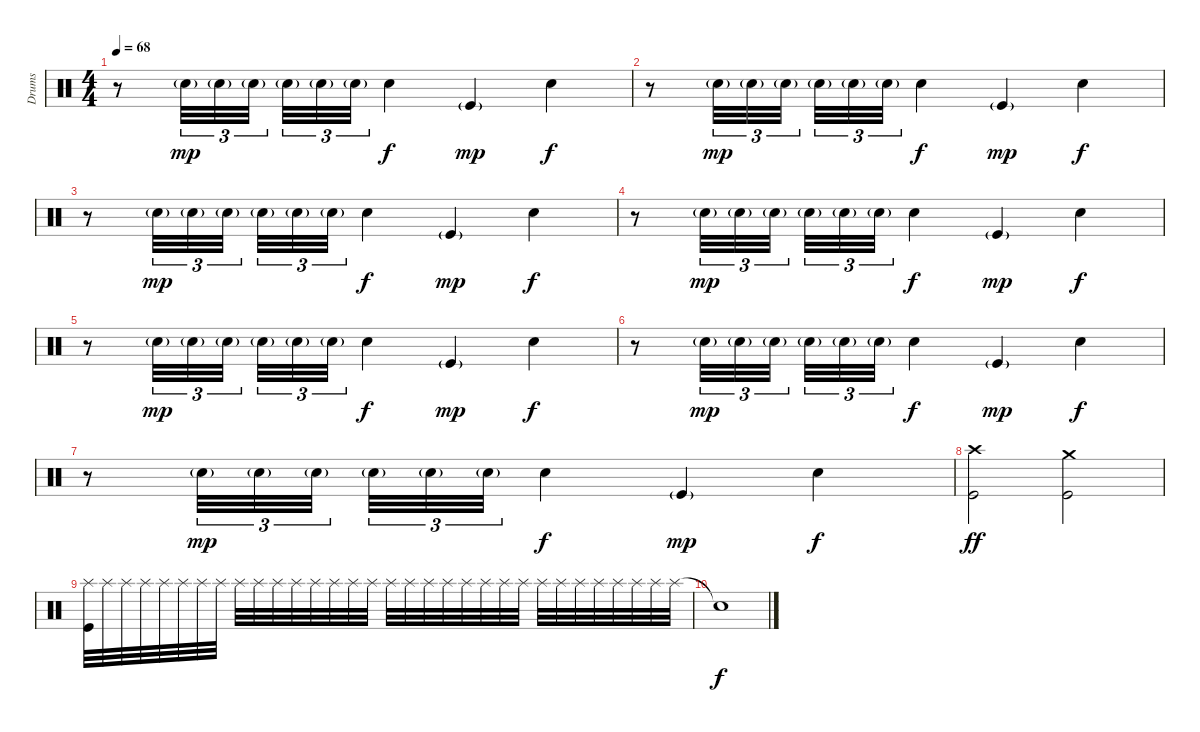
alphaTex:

\track ("Drums" "Drums") {instrument percussion}
\staff {score}
\articulation defaults
\ts (4 4)
\tempo 68
\clef neutral
\ks c
r.8{dy mp} "Snare (hit) 2"{g}.32{tu (3 2)} "Snare (hit) 2"{g}.32{tu (3 2)} "Snare (hit) 2"{g}.32{tu (3 2)} "Snare (hit) 2"{g}.32{tu (3 2)} "Snare (hit) 2"{g}.32{tu (3 2)} "Snare (hit) 2"{g}.32{tu (3 2)} "Snare (hit) 2".4{dy f} "Kick (hit)"{g}.4{dy mp} "Snare (hit) 2".4{dy f} |
r.8 "Snare (hit) 2"{g}.32{tu (3 2) dy mp} "Snare (hit) 2"{g}.32{tu (3 2)} "Snare (hit) 2"{g}.32{tu (3 2)} "Snare (hit) 2"{g}.32{tu (3 2)} "Snare (hit) 2"{g}.32{tu (3 2)} "Snare (hit) 2"{g}.32{tu (3 2)} "Snare (hit) 2".4{dy f} "Kick (hit)"{g}.4{dy mp} "Snare (hit) 2".4{dy f} |
r.8 "Snare (hit) 2"{g}.32{tu (3 2) dy mp} "Snare (hit) 2"{g}.32{tu (3 2)} "Snare (hit) 2"{g}.32{tu (3 2)} "Snare (hit) 2"{g}.32{tu (3 2)} "Snare (hit) 2"{g}.32{tu (3 2)} "Snare (hit) 2"{g}.32{tu (3 2)} "Snare (hit) 2".4{dy f} "Kick (hit)"{g}.4{dy mp} "Snare (hit) 2".4{dy f} |
r.8 "Snare (hit) 2"{g}.32{tu (3 2) dy mp} "Snare (hit) 2"{g}.32{tu (3 2)} "Snare (hit) 2"{g}.32{tu (3 2)} "Snare (hit) 2"{g}.32{tu (3 2)} "Snare (hit) 2"{g}.32{tu (3 2)} "Snare (hit) 2"{g}.32{tu (3 2)} "Snare (hit) 2".4{dy f} "Kick (hit)"{g}.4{dy mp} "Snare (hit) 2".4{dy f} |
r.8 "Snare (hit) 2"{g}.32{tu (3 2) dy mp} "Snare (hit) 2"{g}.32{tu (3 2)} "Snare (hit) 2"{g}.32{tu (3 2)} "Snare (hit) 2"{g}.32{tu (3 2)} "Snare (hit) 2"{g}.32{tu (3 2)} "Snare (hit) 2"{g}.32{tu (3 2)} "Snare (hit) 2".4{dy f} "Kick (hit)"{g}.4{dy mp} "Snare (hit) 2".4{dy f} |
r.8 "Snare (hit) 2"{g}.32{tu (3 2) dy mp} "Snare (hit) 2"{g}.32{tu (3 2)} "Snare (hit) 2"{g}.32{tu (3 2)} "Snare (hit) 2"{g}.32{tu (3 2)} "Snare (hit) 2"{g}.32{tu (3 2)} "Snare (hit) 2"{g}.32{tu (3 2)} "Snare (hit) 2".4{dy f} "Kick (hit)"{g}.4{dy mp} "Snare (hit) 2".4{dy f} |
r.8 "Snare (hit) 2"{g}.32{tu (3 2) dy mp} "Snare (hit) 2"{g}.32{tu (3 2)} "Snare (hit) 2"{g}.32{tu (3 2)} "Snare (hit) 2"{g}.32{tu (3 2)} "Snare (hit) 2"{g}.32{tu (3 2)} "Snare (hit) 2"{g}.32{tu (3 2)} "Snare (hit) 2".4{dy f} "Kick (hit)"{g}.4{dy mp} "Snare (hit) 2".4{dy f} |
("Crash high (hit)" "Kick (hit)").2{dy ff} ("Crash medium (hit)" "Kick (hit)").2 |
("Splash (hit)" "Kick (hit)").32{volume 8} "Splash (hit)".32 "Splash (hit)".32 "Splash (hit)".32 "Splash (hit)".32 "Splash (hit)".32 "Splash (hit)".32 "Splash (hit)".32 "Splash (hit)".32 "Splash (hit)".32 "Splash (hit)".32 "Splash (hit)".32 "Splash (hit)".32 "Splash (hit)".32 "Splash (hit)".32 "Splash (hit)".32 "Splash (hit)".32 "Splash (hit)".32 "Splash (hit)".32 "Splash (hit)".32 "Splash (hit)".32 "Splash (hit)".32 "Splash (hit)".32 "Splash (hit)".32 "Splash (hit)".32 "Splash (hit)".32 "Splash (hit)".32 "Splash (hit)".32 "Splash (hit)".32 "Splash (hit)".32 "Splash (hit)".32 "Splash (hit)".32 |
"Snare (hit)"{t}.1{dy f}
